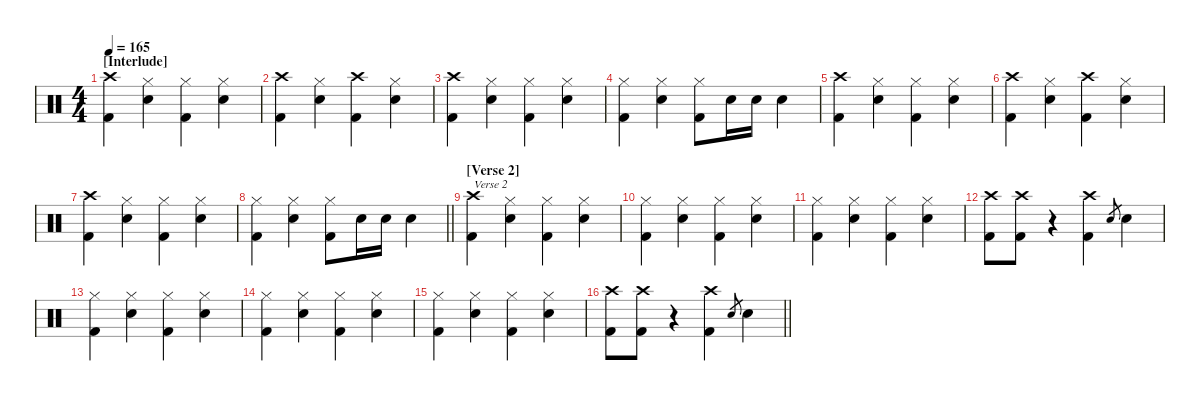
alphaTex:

\defaultSystemsLayout 4
\hideDynamics
\bracketExtendMode nobrackets
\singleTrackTrackNamePolicy hidden
\multiTrackTrackNamePolicy hidden
\firstSystemTrackNameMode fullname
\firstSystemTrackNameOrientation horizontal
\otherSystemsTrackNameOrientation horizontal
\track ("drums" "drm.") {instrument percussion}
\staff {score}
\articulation defaults
\ts (4 4)
\section ("" "[Interlude]")
\tempo 165
\clef neutral
\ks c
("Crash high (hit)" "Kick (hit) 2").4{dy fff beam Down} ("Hi-Hat (closed)" "Snare (hit) 2").4{dy f beam Down} ("Hi-Hat (closed)" "Kick (hit) 2").4{beam Down} ("Hi-Hat (closed)" "Snare (hit) 2").4{beam Down} |
("Crash high (hit)" "Kick (hit) 2").4{dy fff beam Down} ("Hi-Hat (closed)" "Snare (hit) 2").4{dy f beam Down} ("Crash high (hit)" "Kick (hit) 2").4{dy fff beam Down} ("Hi-Hat (closed)" "Snare (hit) 2").4{dy f beam Down} |
("Crash high (hit)" "Kick (hit) 2").4{dy fff beam Down} ("Hi-Hat (closed)" "Snare (hit) 2").4{dy f beam Down} ("Hi-Hat (closed)" "Kick (hit) 2").4{beam Down} ("Hi-Hat (closed)" "Snare (hit) 2").4{beam Down} |
("Hi-Hat (closed)" "Kick (hit) 2").4{beam Down} ("Hi-Hat (closed)" "Snare (hit) 2").4{beam Down} ("Hi-Hat (closed)" "Kick (hit) 2").8{beam Down} "Snare (hit) 2".16{beam Down} "Snare (hit) 2".16{dy mf beam Down} "Snare (hit) 2".4{dy f beam Down} |
("Crash high (hit)" "Kick (hit) 2").4{dy fff beam Down} ("Hi-Hat (closed)" "Snare (hit) 2").4{dy f beam Down} ("Hi-Hat (closed)" "Kick (hit) 2").4{beam Down} ("Hi-Hat (closed)" "Snare (hit) 2").4{beam Down} |
("Crash high (hit)" "Kick (hit) 2").4{dy fff beam Down} ("Hi-Hat (closed)" "Snare (hit) 2").4{dy f beam Down} ("Crash high (hit)" "Kick (hit) 2").4{dy fff beam Down} ("Hi-Hat (closed)" "Snare (hit) 2").4{dy f beam Down} |
("Crash high (hit)" "Kick (hit) 2").4{dy fff beam Down} ("Hi-Hat (closed)" "Snare (hit) 2").4{dy f beam Down} ("Hi-Hat (closed)" "Kick (hit) 2").4{beam Down} ("Hi-Hat (closed)" "Snare (hit) 2").4{beam Down} |
\barLineRight lightlight
("Hi-Hat (closed)" "Kick (hit) 2").4{beam Down} ("Hi-Hat (closed)" "Snare (hit) 2").4{beam Down} ("Hi-Hat (closed)" "Kick (hit) 2").8{beam Down} "Snare (hit) 2".16{beam Down} "Snare (hit) 2".16{dy mf beam Down} "Snare (hit) 2".4{dy f beam Down} |
\section ("" "[Verse 2]")
("Crash high (hit)" "Kick (hit) 2").4{txt "Verse 2" dy fff beam Down} ("Hi-Hat (closed)" "Snare (hit) 2").4{dy f beam Down} ("Hi-Hat (closed)" "Kick (hit) 2").4{beam Down} ("Hi-Hat (closed)" "Snare (hit) 2").4{beam Down} |
("Hi-Hat (closed)" "Kick (hit) 2").4{beam Down} ("Hi-Hat (closed)" "Snare (hit) 2").4{beam Down} ("Hi-Hat (closed)" "Kick (hit) 2").4{beam Down} ("Hi-Hat (closed)" "Snare (hit) 2").4{beam Down} |
("Hi-Hat (closed)" "Kick (hit) 2").4{beam Down} ("Hi-Hat (closed)" "Snare (hit) 2").4{beam Down} ("Hi-Hat (closed)" "Kick (hit) 2").4{beam Down} ("Hi-Hat (closed)" "Snare (hit) 2").4{beam Down} |
("Crash high (hit)" "Kick (hit) 2").8{dy fff beam Down} ("Crash high (hit)" "Kick (hit) 2").8{beam Down} r.4{beam Down} ("Crash high (hit)" "Kick (hit) 2").4{beam Down} "Snare (hit) 2".8{gr dy mf beam Up} "Snare (hit) 2".4{dy f beam Down} |
("Hi-Hat (closed)" "Kick (hit) 2").4{beam Down} ("Hi-Hat (closed)" "Snare (hit) 2").4{beam Down} ("Hi-Hat (closed)" "Kick (hit) 2").4{beam Down} ("Hi-Hat (closed)" "Snare (hit) 2").4{beam Down} |
("Hi-Hat (closed)" "Kick (hit) 2").4{beam Down} ("Hi-Hat (closed)" "Snare (hit) 2").4{beam Down} ("Hi-Hat (closed)" "Kick (hit) 2").4{beam Down} ("Hi-Hat (closed)" "Snare (hit) 2").4{beam Down} |
("Hi-Hat (closed)" "Kick (hit) 2").4{beam Down} ("Hi-Hat (closed)" "Snare (hit) 2").4{beam Down} ("Hi-Hat (closed)" "Kick (hit) 2").4{beam Down} ("Hi-Hat (closed)" "Snare (hit) 2").4{beam Down} |
\barLineRight lightlight
("Crash high (hit)" "Kick (hit) 2").8{dy fff beam Down} ("Crash high (hit)" "Kick (hit) 2").8{beam Down} r.4{beam Down} ("Crash high (hit)" "Kick (hit) 2").4{beam Down} "Snare (hit) 2".8{gr dy mf beam Up} "Snare (hit) 2".4{dy f beam Down}
